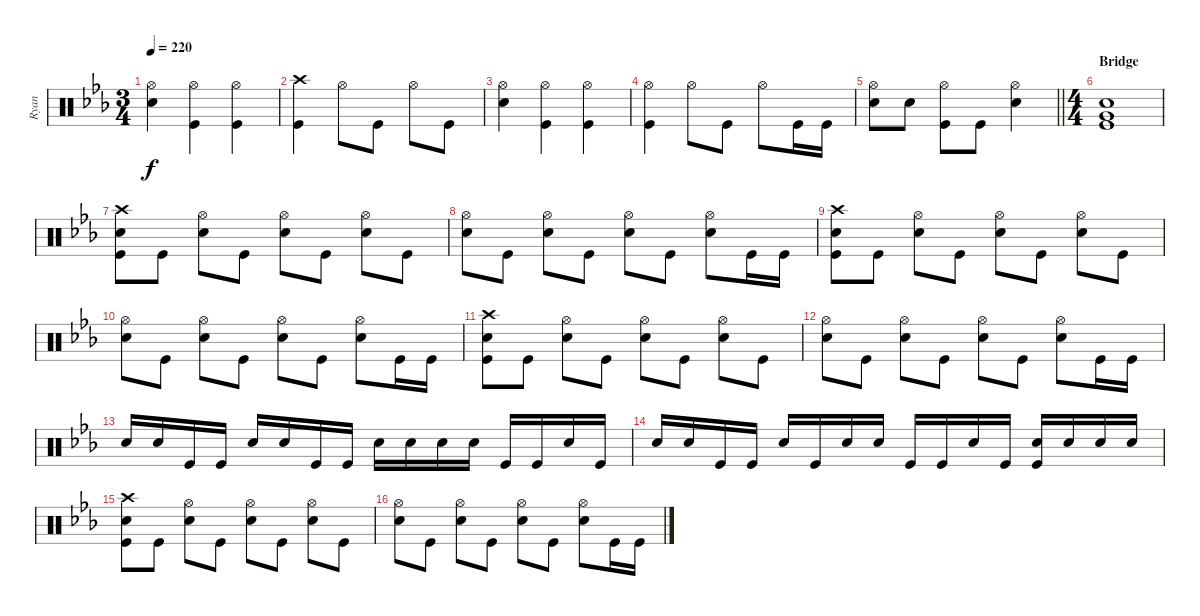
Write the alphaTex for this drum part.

\track ("Ryan" "Ryan") {instrument percussion}
\staff {score}
\articulation defaults
\ts (3 4)
\tempo 220
\clef neutral
\ks cminor
("Snare (hit) 2" "Hi-Hat (open)").4{dy f} ("Kick (hit)" "Hi-Hat (open)").4 ("Kick (hit)" "Hi-Hat (open)").4 |
("Crash high (hit)" "Kick (hit)").4 "Hi-Hat (open)".8 "Kick (hit)".8 "Hi-Hat (open)".8 "Kick (hit)".8 |
("Snare (hit) 2" "Hi-Hat (open)").4 ("Kick (hit)" "Hi-Hat (open)").4 ("Kick (hit)" "Hi-Hat (open)").4 |
("Kick (hit)" "Hi-Hat (open)").4 "Hi-Hat (open)".8 "Kick (hit)".8 "Hi-Hat (open)".8 "Kick (hit)".16 "Kick (hit)".16 |
\barLineRight lightlight
("Hi-Hat (open)" "Snare (hit) 2").8 "Snare (hit) 2".8 ("Kick (hit)" "Hi-Hat (open)").8 "Kick (hit)".8 ("Hi-Hat (open)" "Snare (hit) 2").4 |
\ts (4 4)
\section ("" "Bridge")
("Snare (hit) 2" "Kick (hit)" "Very Low Tom (hit)").1 |
("Crash high (hit)" "Kick (hit)" "Snare (hit) 2").8 "Kick (hit)".8 ("Snare (hit) 2" "Hi-Hat (open)").8 "Kick (hit)".8 ("Snare (hit) 2" "Hi-Hat (open)").8 "Kick (hit)".8 ("Snare (hit) 2" "Hi-Hat (open)").8 "Kick (hit)".8 |
("Hi-Hat (open)" "Snare (hit) 2").8 "Kick (hit)".8 ("Snare (hit) 2" "Hi-Hat (open)").8 "Kick (hit)".8 ("Snare (hit) 2" "Hi-Hat (open)").8 "Kick (hit)".8 ("Hi-Hat (open)" "Snare (hit) 2").8 "Kick (hit)".16 "Kick (hit)".16 |
("Crash high (hit)" "Kick (hit)" "Snare (hit) 2").8 "Kick (hit)".8 ("Snare (hit) 2" "Hi-Hat (open)").8 "Kick (hit)".8 ("Snare (hit) 2" "Hi-Hat (open)").8 "Kick (hit)".8 ("Snare (hit) 2" "Hi-Hat (open)").8 "Kick (hit)".8 |
("Hi-Hat (open)" "Snare (hit) 2").8 "Kick (hit)".8 ("Snare (hit) 2" "Hi-Hat (open)").8 "Kick (hit)".8 ("Snare (hit) 2" "Hi-Hat (open)").8 "Kick (hit)".8 ("Hi-Hat (open)" "Snare (hit) 2").8 "Kick (hit)".16 "Kick (hit)".16 |
("Crash high (hit)" "Kick (hit)" "Snare (hit) 2").8 "Kick (hit)".8 ("Snare (hit) 2" "Hi-Hat (open)").8 "Kick (hit)".8 ("Snare (hit) 2" "Hi-Hat (open)").8 "Kick (hit)".8 ("Snare (hit) 2" "Hi-Hat (open)").8 "Kick (hit)".8 |
("Hi-Hat (open)" "Snare (hit) 2").8 "Kick (hit)".8 ("Snare (hit) 2" "Hi-Hat (open)").8 "Kick (hit)".8 ("Snare (hit) 2" "Hi-Hat (open)").8 "Kick (hit)".8 ("Hi-Hat (open)" "Snare (hit) 2").8 "Kick (hit)".16 "Kick (hit)".16 |
"Snare (hit) 2".16 "Snare (hit) 2".16 "Kick (hit)".16 "Kick (hit)".16 "Snare (hit) 2".16 "Snare (hit) 2".16 "Kick (hit)".16 "Kick (hit)".16 "Snare (hit) 2".16 "Snare (hit) 2".16 "Snare (hit) 2".16 "Snare (hit) 2".16 "Kick (hit)".16 "Kick (hit)".16 "Snare (hit) 2".16 "Kick (hit)".16 |
"Snare (hit) 2".16 "Snare (hit) 2".16 "Kick (hit)".16 "Kick (hit)".16 "Snare (hit) 2".16 "Kick (hit)".16 "Snare (hit) 2".16 "Snare (hit) 2".16 "Kick (hit)".16 "Kick (hit)".16 "Snare (hit) 2".16 "Kick (hit)".16 ("Kick (hit)" "Snare (hit) 2").16 "Snare (hit) 2".16 "Snare (hit) 2".16 "Snare (hit) 2".16 |
("Crash high (hit)" "Kick (hit)" "Snare (hit) 2").8 "Kick (hit)".8 ("Snare (hit) 2" "Hi-Hat (open)").8 "Kick (hit)".8 ("Snare (hit) 2" "Hi-Hat (open)").8 "Kick (hit)".8 ("Snare (hit) 2" "Hi-Hat (open)").8 "Kick (hit)".8 |
("Hi-Hat (open)" "Snare (hit) 2").8 "Kick (hit)".8 ("Snare (hit) 2" "Hi-Hat (open)").8 "Kick (hit)".8 ("Snare (hit) 2" "Hi-Hat (open)").8 "Kick (hit)".8 ("Hi-Hat (open)" "Snare (hit) 2").8 "Kick (hit)".16 "Kick (hit)".16
